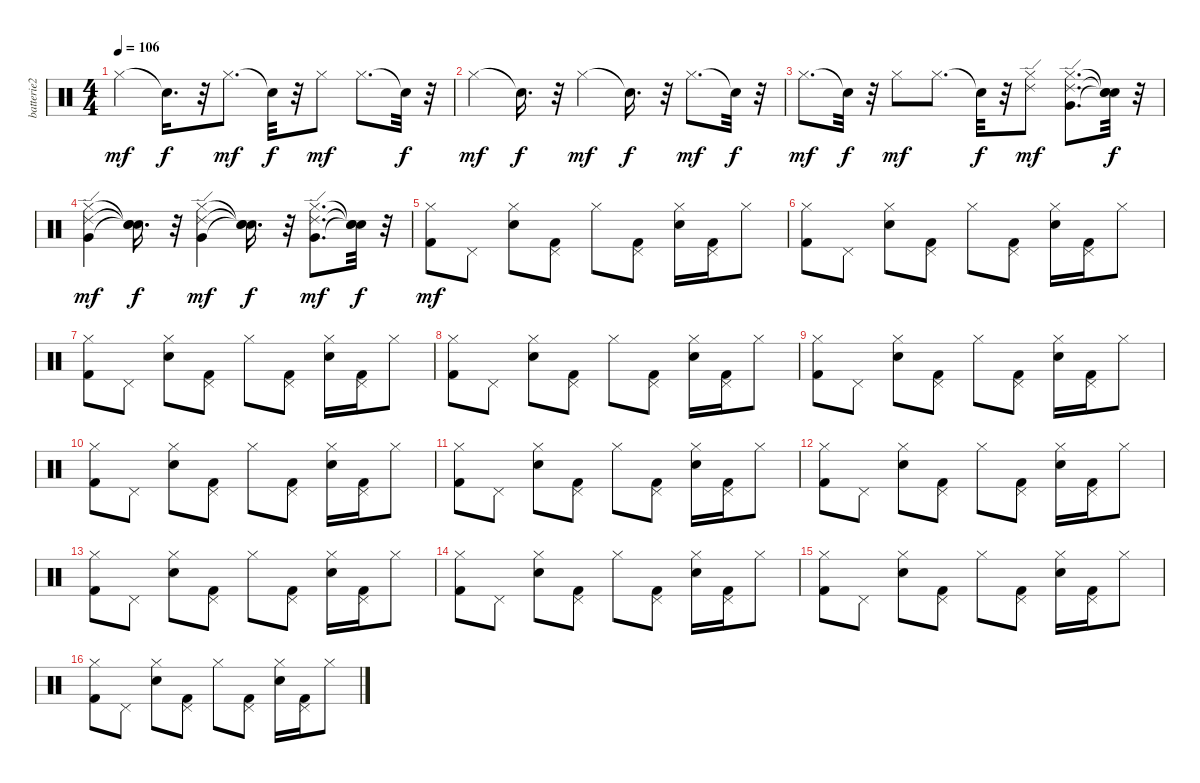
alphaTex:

\track ("batterie2" "batterie2") {instrument percussion}
\staff {score}
\articulation defaults
\ts (4 4)
\tempo 106
\clef neutral
\ks c "Hi-Hat (closed)".4{dy mf} "Snare (hit)"{t}.16{d dy f}
r.32 "Hi-Hat (closed)".8{d dy mf} "Snare (hit)"{t}.32{dy f} r.32 "Hi-Hat (closed)".8{dy mf} "Hi-Hat (closed)".8{d} "Snare (hit)"{t}.32{dy f} r.32 |
"Hi-Hat (closed)".4{dy mf} "Snare (hit)"{t}.16{d dy f} r.32 "Hi-Hat (closed)".4{dy mf} "Snare (hit)"{t}.16{d dy f} r.32 "Hi-Hat (closed)".8{d dy mf} "Snare (hit)"{t}.32{dy f} r.32 |
"Hi-Hat (closed)".8{d dy mf} "Snare (hit)"{t}.32{dy f} r.32 "Hi-Hat (closed)".8{dy mf} "Hi-Hat (closed)".8{d} "Snare (hit)"{t}.32{dy f} r.32 ("Hi-Hat (closed)" "Ride (edge) 2").8{dy mf} ("Hi-Hat (closed)" "Very Low Tom (hit)" "Ride (edge) 2").8{d} ("Snare (hit)"{t} "Snare (hit)"{t} "Snare (hit)"{t}).32{dy f} r.32 |
("Hi-Hat (closed)" "Very Low Tom (hit)" "Ride (edge) 2").4{dy mf} ("Snare (hit)"{t} "Snare (hit)"{t} "Snare (hit)"{t}).16{d dy f} r.32 ("Hi-Hat (closed)" "Very Low Tom (hit)" "Ride (edge) 2").4{dy mf} ("Snare (hit)"{t} "Snare (hit)"{t} "Snare (hit)"{t}).16{d dy f} r.32 ("Hi-Hat (closed)" "Very Low Tom (hit)" "Ride (edge) 2").8{d dy mf} ("Snare (hit)"{t} "Snare (hit)"{t} "Snare (hit)"{t}).32{dy f} r.32 |
("Kick (hit) 2" "Hi-Hat (closed)").8{dy mf} "Pedal Hi-Hat (hit)".8 ("Snare (hit) 2" "Hi-Hat (closed)").8 ("Kick (hit) 2" "Pedal Hi-Hat (hit)").8 "Hi-Hat (closed)".8 ("Kick (hit) 2" "Pedal Hi-Hat (hit)").8 ("Snare (hit) 2" "Hi-Hat (closed)").16 ("Kick (hit) 2" "Pedal Hi-Hat (hit)").16 "Hi-Hat (closed)".8 |
("Kick (hit) 2" "Hi-Hat (closed)").8 "Pedal Hi-Hat (hit)".8 ("Snare (hit) 2" "Hi-Hat (closed)").8 ("Kick (hit) 2" "Pedal Hi-Hat (hit)").8 "Hi-Hat (closed)".8 ("Kick (hit) 2" "Pedal Hi-Hat (hit)").8 ("Snare (hit) 2" "Hi-Hat (closed)").16 ("Kick (hit) 2" "Pedal Hi-Hat (hit)").16 "Hi-Hat (closed)".8 |
("Kick (hit) 2" "Hi-Hat (closed)").8 "Pedal Hi-Hat (hit)".8 ("Snare (hit) 2" "Hi-Hat (closed)").8 ("Kick (hit) 2" "Pedal Hi-Hat (hit)").8 "Hi-Hat (closed)".8 ("Kick (hit) 2" "Pedal Hi-Hat (hit)").8 ("Snare (hit) 2" "Hi-Hat (closed)").16 ("Kick (hit) 2" "Pedal Hi-Hat (hit)").16 "Hi-Hat (closed)".8 |
("Kick (hit) 2" "Hi-Hat (closed)").8 "Pedal Hi-Hat (hit)".8 ("Snare (hit) 2" "Hi-Hat (closed)").8 ("Kick (hit) 2" "Pedal Hi-Hat (hit)").8 "Hi-Hat (closed)".8 ("Kick (hit) 2" "Pedal Hi-Hat (hit)").8 ("Snare (hit) 2" "Hi-Hat (closed)").16 ("Kick (hit) 2" "Pedal Hi-Hat (hit)").16 "Hi-Hat (closed)".8 |
("Kick (hit) 2" "Hi-Hat (closed)").8 "Pedal Hi-Hat (hit)".8 ("Snare (hit) 2" "Hi-Hat (closed)").8 ("Kick (hit) 2" "Pedal Hi-Hat (hit)").8 "Hi-Hat (closed)".8 ("Kick (hit) 2" "Pedal Hi-Hat (hit)").8 ("Snare (hit) 2" "Hi-Hat (closed)").16 ("Kick (hit) 2" "Pedal Hi-Hat (hit)").16 "Hi-Hat (closed)".8 |
("Kick (hit) 2" "Hi-Hat (closed)").8 "Pedal Hi-Hat (hit)".8 ("Snare (hit) 2" "Hi-Hat (closed)").8 ("Kick (hit) 2" "Pedal Hi-Hat (hit)").8 "Hi-Hat (closed)".8 ("Kick (hit) 2" "Pedal Hi-Hat (hit)").8 ("Snare (hit) 2" "Hi-Hat (closed)").16 ("Kick (hit) 2" "Pedal Hi-Hat (hit)").16 "Hi-Hat (closed)".8 |
("Kick (hit) 2" "Hi-Hat (closed)").8 "Pedal Hi-Hat (hit)".8 ("Snare (hit) 2" "Hi-Hat (closed)").8 ("Kick (hit) 2" "Pedal Hi-Hat (hit)").8 "Hi-Hat (closed)".8 ("Kick (hit) 2" "Pedal Hi-Hat (hit)").8 ("Snare (hit) 2" "Hi-Hat (closed)").16 ("Kick (hit) 2" "Pedal Hi-Hat (hit)").16 "Hi-Hat (closed)".8 |
("Kick (hit) 2" "Hi-Hat (closed)").8 "Pedal Hi-Hat (hit)".8 ("Snare (hit) 2" "Hi-Hat (closed)").8 ("Kick (hit) 2" "Pedal Hi-Hat (hit)").8 "Hi-Hat (closed)".8 ("Kick (hit) 2" "Pedal Hi-Hat (hit)").8 ("Snare (hit) 2" "Hi-Hat (closed)").16 ("Kick (hit) 2" "Pedal Hi-Hat (hit)").16 "Hi-Hat (closed)".8 |
("Kick (hit) 2" "Hi-Hat (closed)").8 "Pedal Hi-Hat (hit)".8 ("Snare (hit) 2" "Hi-Hat (closed)").8 ("Kick (hit) 2" "Pedal Hi-Hat (hit)").8 "Hi-Hat (closed)".8 ("Kick (hit) 2" "Pedal Hi-Hat (hit)").8 ("Snare (hit) 2" "Hi-Hat (closed)").16 ("Kick (hit) 2" "Pedal Hi-Hat (hit)").16 "Hi-Hat (closed)".8 |
("Kick (hit) 2" "Hi-Hat (closed)").8 "Pedal Hi-Hat (hit)".8 ("Snare (hit) 2" "Hi-Hat (closed)").8 ("Kick (hit) 2" "Pedal Hi-Hat (hit)").8 "Hi-Hat (closed)".8 ("Kick (hit) 2" "Pedal Hi-Hat (hit)").8 ("Snare (hit) 2" "Hi-Hat (closed)").16 ("Kick (hit) 2" "Pedal Hi-Hat (hit)").16 "Hi-Hat (closed)".8 |
("Kick (hit) 2" "Hi-Hat (closed)").8 "Pedal Hi-Hat (hit)".8 ("Snare (hit) 2" "Hi-Hat (closed)").8 ("Kick (hit) 2" "Pedal Hi-Hat (hit)").8 "Hi-Hat (closed)".8 ("Kick (hit) 2" "Pedal Hi-Hat (hit)").8 ("Snare (hit) 2" "Hi-Hat (closed)").16 ("Kick (hit) 2" "Pedal Hi-Hat (hit)").16 "Hi-Hat (closed)".8 |
("Kick (hit) 2" "Hi-Hat (closed)").8 "Pedal Hi-Hat (hit)".8 ("Snare (hit) 2" "Hi-Hat (closed)").8 ("Kick (hit) 2" "Pedal Hi-Hat (hit)").8 "Hi-Hat (closed)".8 ("Kick (hit) 2" "Pedal Hi-Hat (hit)").8 ("Snare (hit) 2" "Hi-Hat (closed)").16 ("Kick (hit) 2" "Pedal Hi-Hat (hit)").16 "Hi-Hat (closed)".8
